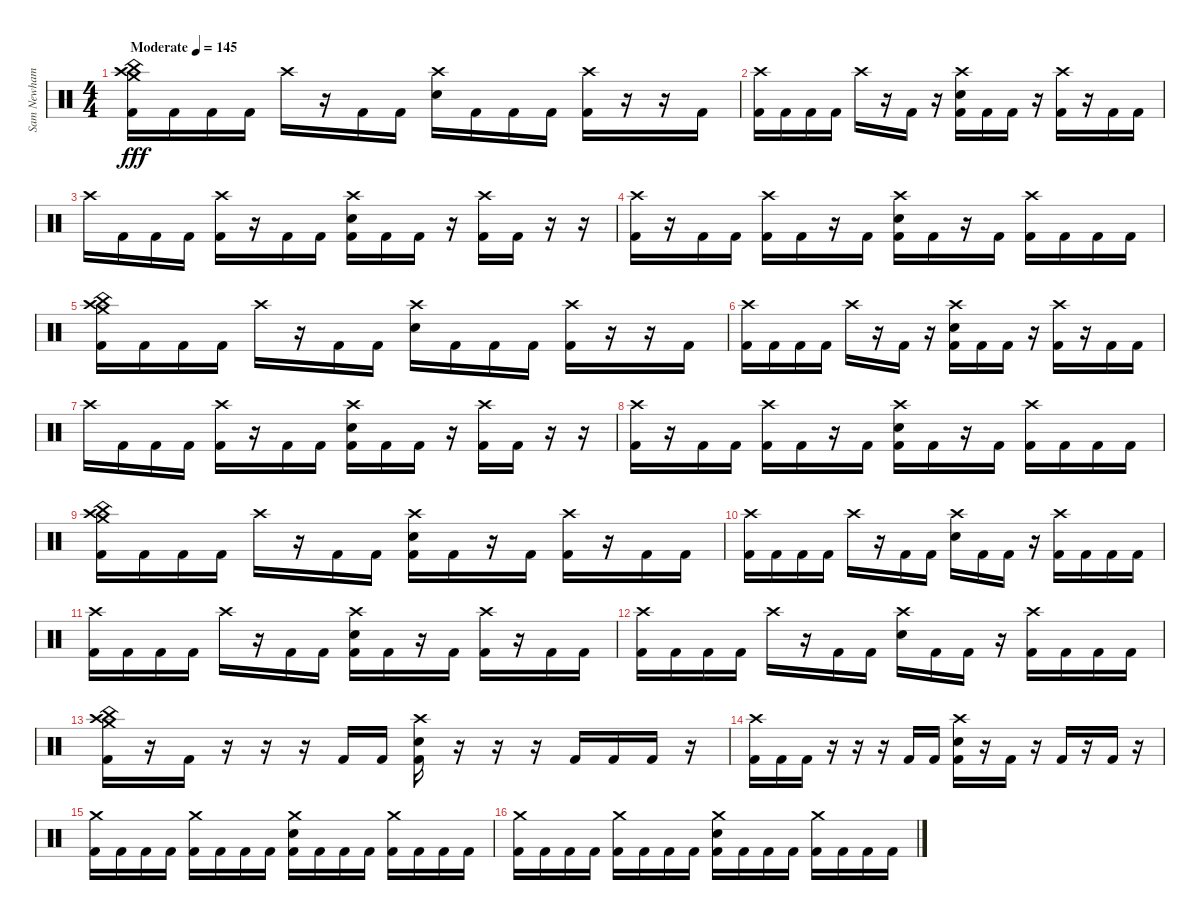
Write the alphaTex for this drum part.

\track ("Sam Newham" "Sam Newham") {instrument percussion}
\staff {score}
\articulation defaults
\ts (4 4)
\tempo (145 "Moderate")
\clef neutral
\ks c
("Crash high (hit)" "Crash medium (hit)" "China (hit)" "Kick (hit) 2").16{dy fff} "Kick (hit) 2".16 "Kick (hit) 2".16 "Kick (hit) 2".16 "Crash high (hit)".16 r.16 "Kick (hit) 2".16 "Kick (hit) 2".16 ("Crash high (hit)" "Electric Snare (hit)").16 "Kick (hit) 2".16 "Kick (hit) 2".16 "Kick (hit) 2".16 ("Crash high (hit)" "Kick (hit) 2").16 r.16 r.16 "Kick (hit) 2".16 |
("Crash high (hit)" "Kick (hit) 2").16 "Kick (hit) 2".16 "Kick (hit) 2".16 "Kick (hit) 2".16 "Crash high (hit)".16 r.16 "Kick (hit) 2".16 r.16 ("Crash high (hit)" "Electric Snare (hit)" "Kick (hit) 2").16 "Kick (hit) 2".16 "Kick (hit) 2".16 r.16 ("Crash high (hit)" "Kick (hit) 2").16 r.16 "Kick (hit) 2".16 "Kick (hit) 2".16 |
"Crash high (hit)".16 "Kick (hit) 2".16 "Kick (hit) 2".16 "Kick (hit) 2".16 ("Crash high (hit)" "Kick (hit) 2").16 r.16 "Kick (hit) 2".16 "Kick (hit) 2".16 ("Crash high (hit)" "Electric Snare (hit)" "Kick (hit) 2").16 "Kick (hit) 2".16 "Kick (hit) 2".16 r.16 ("Crash high (hit)" "Kick (hit) 2").16 "Kick (hit) 2".16 r.16 r.16 |
("Crash high (hit)" "Kick (hit) 2").16 r.16 "Kick (hit) 2".16 "Kick (hit) 2".16 ("Crash high (hit)" "Kick (hit) 2").16 "Kick (hit) 2".16 r.16 "Kick (hit) 2".16 ("Crash high (hit)" "Electric Snare (hit)" "Kick (hit) 2").16 "Kick (hit) 2".16 r.16 "Kick (hit) 2".16 ("Crash high (hit)" "Kick (hit) 2").16 "Kick (hit) 2".16 "Kick (hit) 2".16 "Kick (hit) 2".16 |
("Crash high (hit)" "Crash medium (hit)" "China (hit)" "Kick (hit) 2").16 "Kick (hit) 2".16 "Kick (hit) 2".16 "Kick (hit) 2".16 "Crash high (hit)".16 r.16 "Kick (hit) 2".16 "Kick (hit) 2".16 ("Crash high (hit)" "Electric Snare (hit)").16 "Kick (hit) 2".16 "Kick (hit) 2".16 "Kick (hit) 2".16 ("Crash high (hit)" "Kick (hit) 2").16 r.16 r.16 "Kick (hit) 2".16 |
("Crash high (hit)" "Kick (hit) 2").16 "Kick (hit) 2".16 "Kick (hit) 2".16 "Kick (hit) 2".16 "Crash high (hit)".16 r.16 "Kick (hit) 2".16 r.16 ("Crash high (hit)" "Electric Snare (hit)" "Kick (hit) 2").16 "Kick (hit) 2".16 "Kick (hit) 2".16 r.16 ("Crash high (hit)" "Kick (hit) 2").16 r.16 "Kick (hit) 2".16 "Kick (hit) 2".16 |
"Crash high (hit)".16 "Kick (hit) 2".16 "Kick (hit) 2".16 "Kick (hit) 2".16 ("Crash high (hit)" "Kick (hit) 2").16 r.16 "Kick (hit) 2".16 "Kick (hit) 2".16 ("Crash high (hit)" "Electric Snare (hit)" "Kick (hit) 2").16 "Kick (hit) 2".16 "Kick (hit) 2".16 r.16 ("Crash high (hit)" "Kick (hit) 2").16 "Kick (hit) 2".16 r.16 r.16 |
("Crash high (hit)" "Kick (hit) 2").16 r.16 "Kick (hit) 2".16 "Kick (hit) 2".16 ("Crash high (hit)" "Kick (hit) 2").16 "Kick (hit) 2".16 r.16 "Kick (hit) 2".16 ("Crash high (hit)" "Electric Snare (hit)" "Kick (hit) 2").16 "Kick (hit) 2".16 r.16 "Kick (hit) 2".16 ("Crash high (hit)" "Kick (hit) 2").16 "Kick (hit) 2".16 "Kick (hit) 2".16 "Kick (hit) 2".16 |
("Crash high (hit)" "Crash medium (hit)" "China (hit)" "Kick (hit) 2").16 "Kick (hit) 2".16 "Kick (hit) 2".16 "Kick (hit) 2".16 "Crash high (hit)".16 r.16 "Kick (hit) 2".16 "Kick (hit) 2".16 ("Crash high (hit)" "Electric Snare (hit)" "Kick (hit) 2").16 "Kick (hit) 2".16 r.16 "Kick (hit) 2".16 ("Crash high (hit)" "Kick (hit) 2").16 r.16 "Kick (hit) 2".16 "Kick (hit) 2".16 |
("Crash high (hit)" "Kick (hit) 2").16 "Kick (hit) 2".16 "Kick (hit) 2".16 "Kick (hit) 2".16 "Crash high (hit)".16 r.16 "Kick (hit) 2".16 "Kick (hit) 2".16 ("Crash high (hit)" "Electric Snare (hit)").16 "Kick (hit) 2".16 "Kick (hit) 2".16 r.16 ("Crash high (hit)" "Kick (hit) 2").16 "Kick (hit) 2".16 "Kick (hit) 2".16 "Kick (hit) 2".16 |
("Crash high (hit)" "Kick (hit) 2").16 "Kick (hit) 2".16 "Kick (hit) 2".16 "Kick (hit) 2".16 "Crash high (hit)".16 r.16 "Kick (hit) 2".16 "Kick (hit) 2".16 ("Crash high (hit)" "Electric Snare (hit)" "Kick (hit) 2").16 "Kick (hit) 2".16 r.16 "Kick (hit) 2".16 ("Crash high (hit)" "Kick (hit) 2").16 r.16 "Kick (hit) 2".16 "Kick (hit) 2".16 |
("Crash high (hit)" "Kick (hit) 2").16 "Kick (hit) 2".16 "Kick (hit) 2".16 "Kick (hit) 2".16 "Crash high (hit)".16 r.16 "Kick (hit) 2".16 "Kick (hit) 2".16 ("Crash high (hit)" "Electric Snare (hit)").16 "Kick (hit) 2".16 "Kick (hit) 2".16 r.16 ("Crash high (hit)" "Kick (hit) 2").16 "Kick (hit) 2".16 "Kick (hit) 2".16 "Kick (hit) 2".16 |
("Crash high (hit)" "Crash medium (hit)" "China (hit)" "Kick (hit) 2").16 r.16 "Kick (hit) 2".16 r.16 r.16 r.16 "Kick (hit) 2".16 "Kick (hit) 2".16 ("Crash high (hit)" "Electric Snare (hit)" "Kick (hit) 2").16 r.16 r.16 r.16 "Kick (hit) 2".16 "Kick (hit) 2".16 "Kick (hit) 2".16 r.16 |
("Crash high (hit)" "Kick (hit) 2").16 "Kick (hit) 2".16 "Kick (hit) 2".16 r.16 r.16 r.16 "Kick (hit) 2".16 "Kick (hit) 2".16 ("Crash high (hit)" "Electric Snare (hit)" "Kick (hit) 2").16 r.16 "Kick (hit) 2".16 r.16 "Kick (hit) 2".16 r.16 "Kick (hit) 2".16 r.16 |
("Crash medium (hit)" "Kick (hit) 2").16 "Kick (hit) 2".16 "Kick (hit) 2".16 "Kick (hit) 2".16 ("Crash medium (hit)" "Kick (hit) 2").16 "Kick (hit) 2".16 "Kick (hit) 2".16 "Kick (hit) 2".16 ("Crash medium (hit)" "Electric Snare (hit)" "Kick (hit) 2").16 "Kick (hit) 2".16 "Kick (hit) 2".16 "Kick (hit) 2".16 ("Crash medium (hit)" "Kick (hit) 2").16 "Kick (hit) 2".16 "Kick (hit) 2".16 "Kick (hit) 2".16 |
("Crash medium (hit)" "Kick (hit) 2").16 "Kick (hit) 2".16 "Kick (hit) 2".16 "Kick (hit) 2".16 ("Crash medium (hit)" "Kick (hit) 2").16 "Kick (hit) 2".16 "Kick (hit) 2".16 "Kick (hit) 2".16 ("Crash medium (hit)" "Electric Snare (hit)" "Kick (hit) 2").16 "Kick (hit) 2".16 "Kick (hit) 2".16 "Kick (hit) 2".16 ("Crash medium (hit)" "Kick (hit) 2").16 "Kick (hit) 2".16 "Kick (hit) 2".16 "Kick (hit) 2".16
